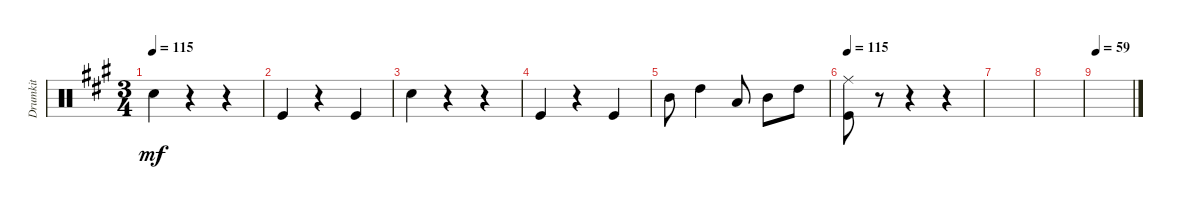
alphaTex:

\track ("Drumkit" "Drumkit") {instrument percussion}
\staff {score}
\articulation defaults
\ts (3 4)
\tempo 115
\clef neutral
\ks a "Snare (hit) 2".4{dy mf}
r.4 r.4 |
"Kick (hit)".4 r.4 "Kick (hit)".4 |
"Snare (hit) 2".4 r.4 r.4 |
"Kick (hit)".4 r.4 "Kick (hit)".4 |
"Mid Tom (hit)".8 "High Tom (hit)".4 "Low Tom (hit)".8 "Mid Tom (hit)".8 "High Tom (hit)".8 |
\tempo 115
("Ride (middle)" "Kick (hit)").8 r.8 r.4 r.4 |
|
|
\tempo 59
